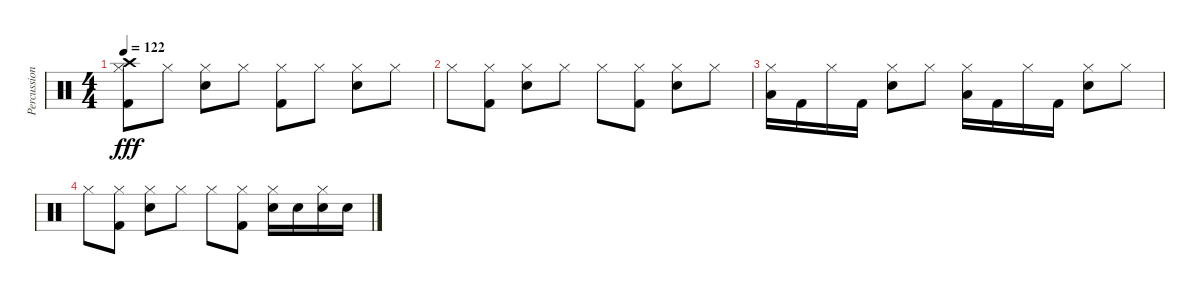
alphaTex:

\track ("Percussion" "Percussion") {instrument percussion}
\staff {score}
\articulation defaults
\ts (4 4)
\tempo 122
\clef neutral
\ks c
("Crash high (hit)" "Hi-Hat (closed)" "Kick (hit) 2").8{dy fff} "Hi-Hat (closed)".8 ("Hi-Hat (closed)" "Electric Snare (hit)").8 "Hi-Hat (closed)".8 ("Hi-Hat (closed)" "Kick (hit) 2").8 "Hi-Hat (closed)".8 ("Hi-Hat (closed)" "Electric Snare (hit)").8 "Hi-Hat (closed)".8 |
"Hi-Hat (closed)".8 ("Hi-Hat (closed)" "Kick (hit) 2").8 ("Hi-Hat (closed)" "Electric Snare (hit)").8 "Hi-Hat (closed)".8 "Hi-Hat (closed)".8 ("Hi-Hat (closed)" "Kick (hit) 2").8 ("Hi-Hat (closed)" "Electric Snare (hit)").8 "Hi-Hat (closed)".8 |
("Hi-Hat (closed)" "Low Tom (hit)").16 "Kick (hit) 2".16 "Hi-Hat (closed)".16 "Kick (hit) 2".16 ("Hi-Hat (closed)" "Electric Snare (hit)").8 "Hi-Hat (closed)".8 ("Hi-Hat (closed)" "Low Tom (hit)").16 "Kick (hit) 2".16 "Hi-Hat (closed)".16 "Kick (hit) 2".16 ("Hi-Hat (closed)" "Electric Snare (hit)").8 "Hi-Hat (closed)".8 |
"Hi-Hat (closed)".8 ("Hi-Hat (closed)" "Kick (hit) 2").8 ("Hi-Hat (closed)" "Electric Snare (hit)").8 "Hi-Hat (closed)".8 "Hi-Hat (closed)".8 ("Hi-Hat (closed)" "Kick (hit) 2").8 ("Hi-Hat (closed)" "Electric Snare (hit)").16 "Electric Snare (hit)".16 ("Hi-Hat (closed)" "Electric Snare (hit)").16 "Electric Snare (hit)".16
